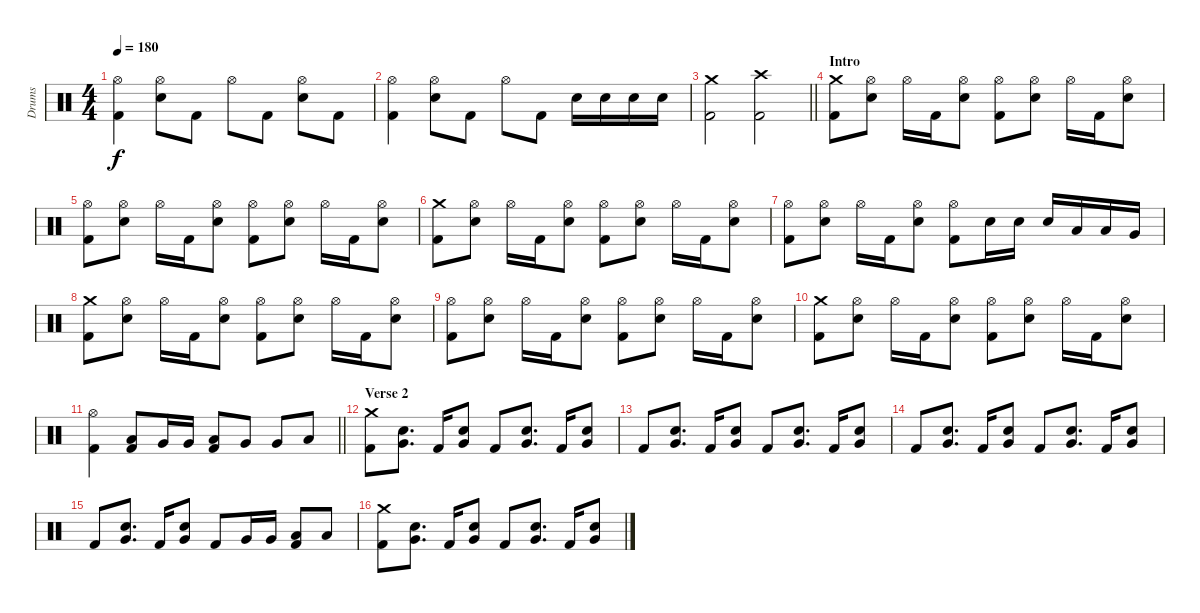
\track ("Drums" "Drums") {instrument percussion}
\staff {score}
\articulation defaults
\ts (4 4)
\tempo 180
\clef neutral
\ks c
("Hi-Hat (open)" "Kick (hit) 2").4{dy f} ("Hi-Hat (open)" "Electric Snare (hit)").8 "Kick (hit) 2".8 "Hi-Hat (open)".8 "Kick (hit) 2".8 ("Hi-Hat (open)" "Electric Snare (hit)").8 "Kick (hit) 2".8 |
("Hi-Hat (open)" "Kick (hit) 2").4 ("Hi-Hat (open)" "Electric Snare (hit)").8 "Kick (hit) 2".8 "Hi-Hat (open)".8 "Kick (hit) 2".8 "Electric Snare (hit)".16 "Electric Snare (hit)".16 "Electric Snare (hit)".16 "Electric Snare (hit)".16 |
\barLineRight lightlight
("Crash medium (hit)" "Kick (hit) 2").2 ("Crash high (hit)" "Kick (hit) 2").2 |
\section ("" "Intro")
("Crash medium (hit)" "Kick (hit) 2").8 ("Hi-Hat (open)" "Electric Snare (hit)").8 "Hi-Hat (open)".16 "Kick (hit) 2".16 ("Hi-Hat (open)" "Electric Snare (hit)").8 ("Hi-Hat (open)" "Kick (hit) 2").8 ("Hi-Hat (open)" "Electric Snare (hit)").8 "Hi-Hat (open)".16 "Kick (hit) 2".16 ("Hi-Hat (open)" "Electric Snare (hit)").8 |
("Hi-Hat (open)" "Kick (hit) 2").8 ("Hi-Hat (open)" "Electric Snare (hit)").8 "Hi-Hat (open)".16 "Kick (hit) 2".16 ("Hi-Hat (open)" "Electric Snare (hit)").8 ("Hi-Hat (open)" "Kick (hit) 2").8 ("Hi-Hat (open)" "Electric Snare (hit)").8 "Hi-Hat (open)".16 "Kick (hit) 2".16 ("Hi-Hat (open)" "Electric Snare (hit)").8 |
("Crash medium (hit)" "Kick (hit) 2").8 ("Hi-Hat (open)" "Electric Snare (hit)").8 "Hi-Hat (open)".16 "Kick (hit) 2".16 ("Hi-Hat (open)" "Electric Snare (hit)").8 ("Hi-Hat (open)" "Kick (hit) 2").8 ("Hi-Hat (open)" "Electric Snare (hit)").8 "Hi-Hat (open)".16 "Kick (hit) 2".16 ("Hi-Hat (open)" "Electric Snare (hit)").8 |
("Hi-Hat (open)" "Kick (hit) 2").8 ("Hi-Hat (open)" "Electric Snare (hit)").8 "Hi-Hat (open)".16 "Kick (hit) 2".16 ("Hi-Hat (open)" "Electric Snare (hit)").8 ("Hi-Hat (open)" "Kick (hit) 2").8 "Electric Snare (hit)".16 "Electric Snare (hit)".16 "Electric Snare (hit)".16 "Low Tom (hit)".16 "Low Tom (hit)".16 "Very Low Tom (hit)".16 |
("Crash medium (hit)" "Kick (hit) 2").8 ("Hi-Hat (open)" "Electric Snare (hit)").8 "Hi-Hat (open)".16 "Kick (hit) 2".16 ("Hi-Hat (open)" "Electric Snare (hit)").8 ("Hi-Hat (open)" "Kick (hit) 2").8 ("Hi-Hat (open)" "Electric Snare (hit)").8 "Hi-Hat (open)".16 "Kick (hit) 2".16 ("Hi-Hat (open)" "Electric Snare (hit)").8 |
("Hi-Hat (open)" "Kick (hit) 2").8 ("Hi-Hat (open)" "Electric Snare (hit)").8 "Hi-Hat (open)".16 "Kick (hit) 2".16 ("Hi-Hat (open)" "Electric Snare (hit)").8 ("Hi-Hat (open)" "Kick (hit) 2").8 ("Hi-Hat (open)" "Electric Snare (hit)").8 "Hi-Hat (open)".16 "Kick (hit) 2".16 ("Hi-Hat (open)" "Electric Snare (hit)").8 |
("Crash medium (hit)" "Kick (hit) 2").8 ("Hi-Hat (open)" "Electric Snare (hit)").8 "Hi-Hat (open)".16 "Kick (hit) 2".16 ("Hi-Hat (open)" "Electric Snare (hit)").8 ("Hi-Hat (open)" "Kick (hit) 2").8 ("Hi-Hat (open)" "Electric Snare (hit)").8 "Hi-Hat (open)".16 "Kick (hit) 2".16 ("Hi-Hat (open)" "Electric Snare (hit)").8 |
\barLineRight lightlight
("Hi-Hat (open)" "Kick (hit) 2").4 ("Low Floor Tom (hit)" "Kick (hit) 2").8 "Very Low Tom (hit)".16 "Very Low Tom (hit)".16 ("Low Tom (hit)" "Kick (hit) 2").8 "Very Low Tom (hit)".8 "Very Low Tom (hit)".8 "Low Floor Tom (hit)".8 |
\section ("" "Verse 2")
("Crash medium (hit)" "Kick (hit) 2").8 ("Very Low Tom (hit)" "Electric Snare (hit)").8{d} "Kick (hit) 2".16 ("Very Low Tom (hit)" "Electric Snare (hit)").8 "Kick (hit) 2".8 ("Very Low Tom (hit)" "Electric Snare (hit)").8{d} "Kick (hit) 2".16 ("Very Low Tom (hit)" "Electric Snare (hit)").8 |
"Kick (hit) 2".8 ("Very Low Tom (hit)" "Electric Snare (hit)").8{d} "Kick (hit) 2".16 ("Very Low Tom (hit)" "Electric Snare (hit)").8 "Kick (hit) 2".8 ("Very Low Tom (hit)" "Electric Snare (hit)").8{d} "Kick (hit) 2".16 ("Very Low Tom (hit)" "Electric Snare (hit)").8 |
"Kick (hit) 2".8 ("Very Low Tom (hit)" "Electric Snare (hit)").8{d} "Kick (hit) 2".16 ("Very Low Tom (hit)" "Electric Snare (hit)").8 "Kick (hit) 2".8 ("Very Low Tom (hit)" "Electric Snare (hit)").8{d} "Kick (hit) 2".16 ("Very Low Tom (hit)" "Electric Snare (hit)").8 |
"Kick (hit) 2".8 ("Very Low Tom (hit)" "Electric Snare (hit)").8{d} "Kick (hit) 2".16 ("Very Low Tom (hit)" "Electric Snare (hit)").8 "Kick (hit) 2".8 "Very Low Tom (hit)".16 "Very Low Tom (hit)".16 ("Low Floor Tom (hit)" "Kick (hit) 2").8 "Low Floor Tom (hit)".8 |
("Crash medium (hit)" "Kick (hit) 2").8 ("Very Low Tom (hit)" "Electric Snare (hit)").8{d} "Kick (hit) 2".16 ("Very Low Tom (hit)" "Electric Snare (hit)").8 "Kick (hit) 2".8 ("Very Low Tom (hit)" "Electric Snare (hit)").8{d} "Kick (hit) 2".16 ("Very Low Tom (hit)" "Electric Snare (hit)").8
